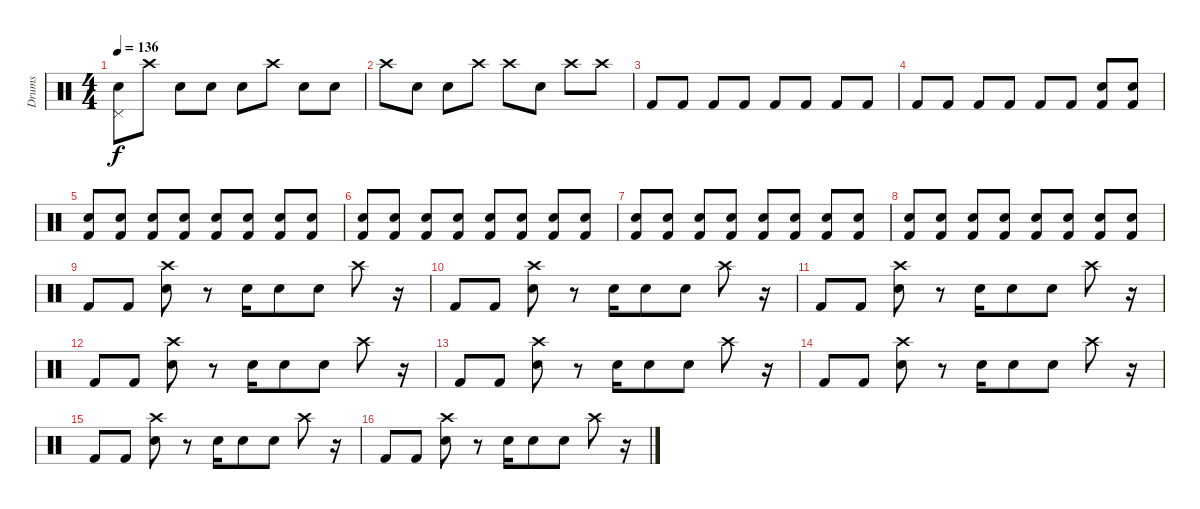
\track ("Drums" "Drums") {instrument percussion}
\staff {score}
\articulation defaults
\ts (4 4)
\tempo 136
\clef neutral
\ks c
("Snare (hit) 2" "Pedal Hi-Hat (hit)").8{dy f} "Crash high (hit)".8 "Electric Snare (hit)".8 "Snare (hit) 2".8 "Snare (hit) 2".8 "Crash high (hit)".8 "Electric Snare (hit)".8 "Snare (hit) 2".8 |
"Crash high (hit)".8 "Electric Snare (hit)".8 "Snare (hit) 2".8 "Crash high (hit)".8 "Crash high (hit)".8 "Snare (hit) 2".8 "Crash high (hit)".8 "Crash high (hit)".8 |
"Kick (hit) 2".8{volume 7} "Kick (hit) 2".8 "Kick (hit) 2".8 "Kick (hit) 2".8 "Kick (hit) 2".8 "Kick (hit) 2".8 "Kick (hit) 2".8 "Kick (hit) 2".8 |
"Kick (hit) 2".8{volume 7} "Kick (hit) 2".8 "Kick (hit) 2".8 "Kick (hit) 2".8 "Kick (hit) 2".8 "Kick (hit) 2".8 ("Snare (hit) 2" "Kick (hit) 2").8 ("Snare (hit) 2" "Kick (hit) 2").8 |
("Snare (hit) 2" "Kick (hit) 2").8{volume 13} ("Snare (hit) 2" "Kick (hit) 2").8 ("Snare (hit) 2" "Kick (hit) 2").8 ("Snare (hit) 2" "Kick (hit) 2").8 ("Snare (hit) 2" "Kick (hit) 2").8 ("Snare (hit) 2" "Kick (hit) 2").8 ("Snare (hit) 2" "Kick (hit) 2").8 ("Snare (hit) 2" "Kick (hit) 2").8 |
("Snare (hit) 2" "Kick (hit) 2").8{volume 13} ("Snare (hit) 2" "Kick (hit) 2").8 ("Snare (hit) 2" "Kick (hit) 2").8 ("Snare (hit) 2" "Kick (hit) 2").8 ("Snare (hit) 2" "Kick (hit) 2").8 ("Snare (hit) 2" "Kick (hit) 2").8 ("Snare (hit) 2" "Kick (hit) 2").8 ("Snare (hit) 2" "Kick (hit) 2").8 |
("Snare (hit) 2" "Kick (hit) 2").8{volume 16} ("Snare (hit) 2" "Kick (hit) 2").8 ("Snare (hit) 2" "Kick (hit) 2").8 ("Snare (hit) 2" "Kick (hit) 2").8 ("Snare (hit) 2" "Kick (hit) 2").8 ("Snare (hit) 2" "Kick (hit) 2").8 ("Snare (hit) 2" "Kick (hit) 2").8 ("Snare (hit) 2" "Kick (hit) 2").8 |
("Snare (hit) 2" "Kick (hit) 2").8{volume 16} ("Snare (hit) 2" "Kick (hit) 2").8 ("Snare (hit) 2" "Kick (hit) 2").8 ("Snare (hit) 2" "Kick (hit) 2").8 ("Snare (hit) 2" "Kick (hit) 2").8 ("Snare (hit) 2" "Kick (hit) 2").8 ("Snare (hit) 2" "Kick (hit) 2").8 ("Snare (hit) 2" "Kick (hit) 2").8 |
"Kick (hit) 2".8 "Kick (hit) 2".8 ("Crash high (hit)" "Snare (hit) 2").8 r.8 "Snare (hit) 2".16 "Snare (hit) 2".8 "Snare (hit) 2".8 "Crash high (hit)".8 r.16 |
"Kick (hit) 2".8 "Kick (hit) 2".8 ("Crash high (hit)" "Snare (hit) 2").8 r.8 "Snare (hit) 2".16 "Snare (hit) 2".8 "Snare (hit) 2".8 "Crash high (hit)".8 r.16 |
"Kick (hit) 2".8 "Kick (hit) 2".8 ("Crash high (hit)" "Snare (hit) 2").8 r.8 "Snare (hit) 2".16 "Snare (hit) 2".8 "Snare (hit) 2".8 "Crash high (hit)".8 r.16 |
"Kick (hit) 2".8 "Kick (hit) 2".8 ("Crash high (hit)" "Snare (hit) 2").8 r.8 "Snare (hit) 2".16 "Snare (hit) 2".8 "Snare (hit) 2".8 "Crash high (hit)".8 r.16 |
"Kick (hit) 2".8 "Kick (hit) 2".8 ("Crash high (hit)" "Snare (hit) 2").8 r.8 "Snare (hit) 2".16 "Snare (hit) 2".8 "Snare (hit) 2".8 "Crash high (hit)".8 r.16 |
"Kick (hit) 2".8 "Kick (hit) 2".8 ("Crash high (hit)" "Snare (hit) 2").8 r.8 "Snare (hit) 2".16 "Snare (hit) 2".8 "Snare (hit) 2".8 "Crash high (hit)".8 r.16 |
"Kick (hit) 2".8 "Kick (hit) 2".8 ("Crash high (hit)" "Snare (hit) 2").8 r.8 "Snare (hit) 2".16 "Snare (hit) 2".8 "Snare (hit) 2".8 "Crash high (hit)".8 r.16 |
"Kick (hit) 2".8 "Kick (hit) 2".8 ("Crash high (hit)" "Snare (hit) 2").8 r.8 "Snare (hit) 2".16 "Snare (hit) 2".8 "Snare (hit) 2".8 "Crash high (hit)".8 r.16
